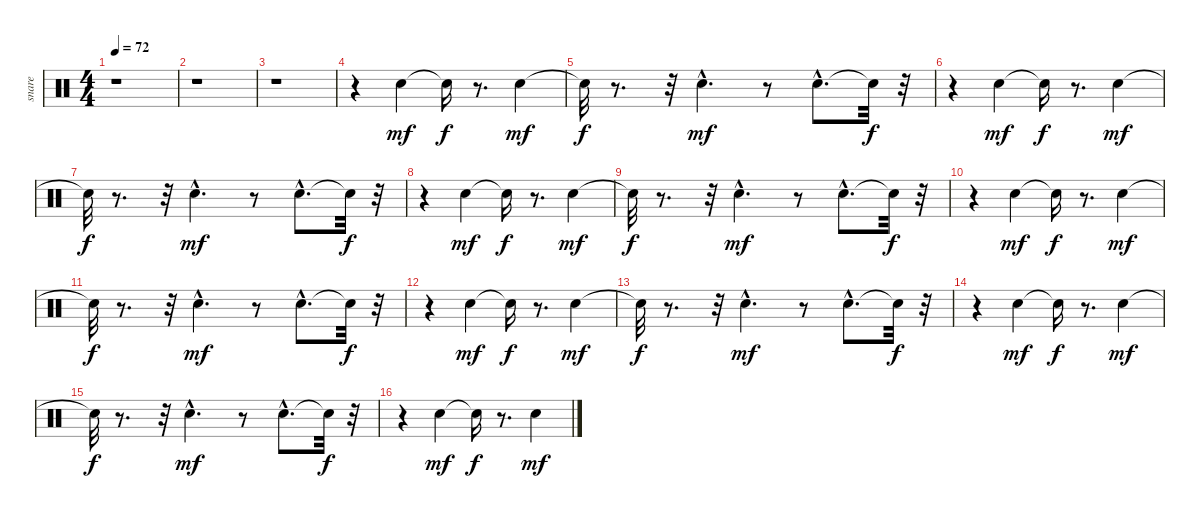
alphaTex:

\track ("snare" "snare") {instrument percussion}
\staff {score}
\articulation defaults
\ts (4 4)
\tempo 72
\clef neutral
\ks c
r.1{dy f} |
r.1 |
r.1 |
r.4 "Snare (hit) 2".4{dy mf} "Snare (hit)"{t}.16{dy f} r.8{d} "Snare (hit) 2".4{dy mf} |
"Snare (hit)"{t}.32{dy f} r.8{d} r.32 "Snare (hit) 2"{hac}.4{d dy mf} r.8 "Snare (hit) 2"{hac}.8{d} "Snare (hit)"{t}.32{dy f} r.32 |
r.4 "Snare (hit) 2".4{dy mf} "Snare (hit)"{t}.16{dy f} r.8{d} "Snare (hit) 2".4{dy mf} |
"Snare (hit)"{t}.32{dy f} r.8{d} r.32 "Snare (hit) 2"{hac}.4{d dy mf} r.8 "Snare (hit) 2"{hac}.8{d} "Snare (hit)"{t}.32{dy f} r.32 |
r.4 "Snare (hit) 2".4{dy mf} "Snare (hit)"{t}.16{dy f} r.8{d} "Snare (hit) 2".4{dy mf} |
"Snare (hit)"{t}.32{dy f} r.8{d} r.32 "Snare (hit) 2"{hac}.4{d dy mf} r.8 "Snare (hit) 2"{hac}.8{d} "Snare (hit)"{t}.32{dy f} r.32 |
r.4 "Snare (hit) 2".4{dy mf} "Snare (hit)"{t}.16{dy f} r.8{d} "Snare (hit) 2".4{dy mf} |
"Snare (hit)"{t}.32{dy f} r.8{d} r.32 "Snare (hit) 2"{hac}.4{d dy mf} r.8 "Snare (hit) 2"{hac}.8{d} "Snare (hit)"{t}.32{dy f} r.32 |
r.4 "Snare (hit) 2".4{dy mf} "Snare (hit)"{t}.16{dy f} r.8{d} "Snare (hit) 2".4{dy mf} |
"Snare (hit)"{t}.32{dy f} r.8{d} r.32 "Snare (hit) 2"{hac}.4{d dy mf} r.8 "Snare (hit) 2"{hac}.8{d} "Snare (hit)"{t}.32{dy f} r.32 |
r.4 "Snare (hit) 2".4{dy mf} "Snare (hit)"{t}.16{dy f} r.8{d} "Snare (hit) 2".4{dy mf} |
"Snare (hit)"{t}.32{dy f} r.8{d} r.32 "Snare (hit) 2"{hac}.4{d dy mf} r.8 "Snare (hit) 2"{hac}.8{d} "Snare (hit)"{t}.32{dy f} r.32 |
r.4 "Snare (hit) 2".4{dy mf} "Snare (hit)"{t}.16{dy f} r.8{d} "Snare (hit) 2".4{dy mf}
